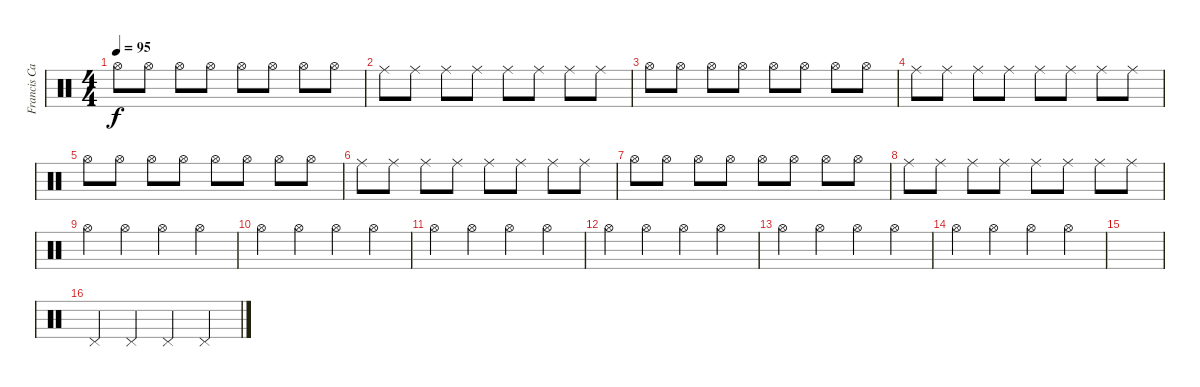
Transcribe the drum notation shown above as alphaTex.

\track ("Francis Cassol 2" "Francis Ca") {instrument percussion}
\staff {score}
\articulation defaults
\ts (4 4)
\tempo 95
\clef neutral
\ks c "Hi-Hat (open)".8{dy f} "Hi-Hat (open)".8 "Hi-Hat (open)".8 "Hi-Hat (open)".8 "Hi-Hat (open)".8 "Hi-Hat (open)".8 "Hi-Hat (open)".8 "Hi-Hat (open)".8
|
"Ride (middle)".8 "Ride (middle)".8 "Ride (middle)".8 "Ride (middle)".8 "Ride (middle)".8 "Ride (middle)".8 "Ride (middle)".8 "Ride (middle)".8 |
"Hi-Hat (open)".8 "Hi-Hat (open)".8 "Hi-Hat (open)".8 "Hi-Hat (open)".8 "Hi-Hat (open)".8 "Hi-Hat (open)".8 "Hi-Hat (open)".8 "Hi-Hat (open)".8 |
"Ride (middle)".8 "Ride (middle)".8 "Ride (middle)".8 "Ride (middle)".8 "Ride (middle)".8 "Ride (middle)".8 "Ride (middle)".8 "Ride (middle)".8 |
"Hi-Hat (open)".8 "Hi-Hat (open)".8 "Hi-Hat (open)".8 "Hi-Hat (open)".8 "Hi-Hat (open)".8 "Hi-Hat (open)".8 "Hi-Hat (open)".8 "Hi-Hat (open)".8 |
"Ride (middle)".8 "Ride (middle)".8 "Ride (middle)".8 "Ride (middle)".8 "Ride (middle)".8 "Ride (middle)".8 "Ride (middle)".8 "Ride (middle)".8 |
"Hi-Hat (open)".8 "Hi-Hat (open)".8 "Hi-Hat (open)".8 "Hi-Hat (open)".8 "Hi-Hat (open)".8 "Hi-Hat (open)".8 "Hi-Hat (open)".8 "Hi-Hat (open)".8 |
"Ride (middle)".8 "Ride (middle)".8 "Ride (middle)".8 "Ride (middle)".8 "Ride (middle)".8 "Ride (middle)".8 "Ride (middle)".8 "Ride (middle)".8 |
"Hi-Hat (open)".4 "Hi-Hat (open)".4 "Hi-Hat (open)".4 "Hi-Hat (open)".4 |
"Hi-Hat (open)".4 "Hi-Hat (open)".4 "Hi-Hat (open)".4 "Hi-Hat (open)".4 |
"Hi-Hat (open)".4 "Hi-Hat (open)".4 "Hi-Hat (open)".4 "Hi-Hat (open)".4 |
"Hi-Hat (open)".4 "Hi-Hat (open)".4 "Hi-Hat (open)".4 "Hi-Hat (open)".4 |
"Hi-Hat (open)".4 "Hi-Hat (open)".4 "Hi-Hat (open)".4 "Hi-Hat (open)".4 |
"Hi-Hat (open)".4 "Hi-Hat (open)".4 "Hi-Hat (open)".4 "Hi-Hat (open)".4 |
|
"Pedal Hi-Hat (hit)".4 "Pedal Hi-Hat (hit)".4 "Pedal Hi-Hat (hit)".4 "Pedal Hi-Hat (hit)".4
